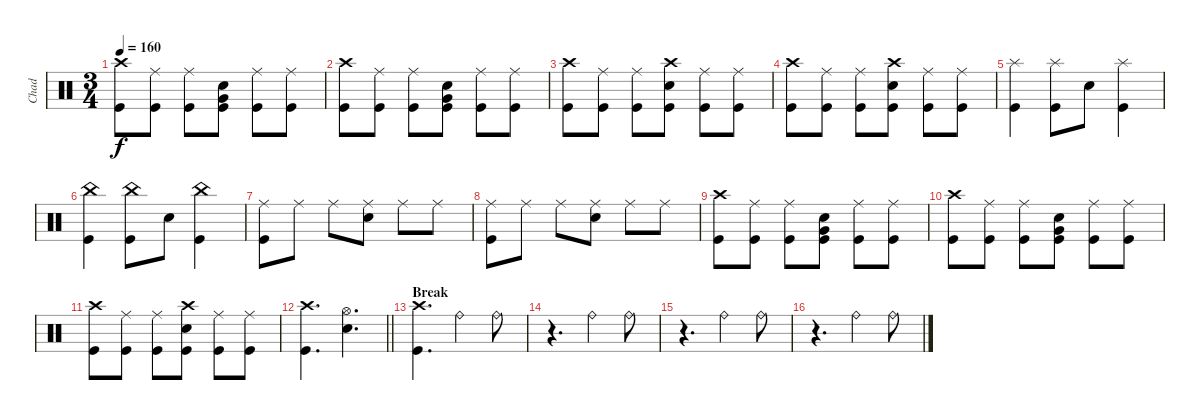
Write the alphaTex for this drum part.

\track ("Chad" "Chad") {instrument percussion}
\staff {score}
\articulation defaults
\ts (3 4)
\tempo 160
\clef neutral
\ks c
("Kick (hit)" "Crash high (hit)").8{dy f} ("Kick (hit)" "Ride (middle)").8 ("Kick (hit)" "Ride (middle)").8 ("Kick (hit)" "Snare (hit) 2" "Very Low Tom (hit)").8 ("Kick (hit)" "Ride (middle)").8 ("Kick (hit)" "Ride (middle)").8 |
("Kick (hit)" "Crash high (hit)").8 ("Kick (hit)" "Ride (middle)").8 ("Kick (hit)" "Ride (middle)").8 ("Kick (hit)" "Snare (hit) 2" "Very Low Tom (hit)").8 ("Kick (hit)" "Ride (middle)").8 ("Ride (middle)" "Kick (hit)").8 |
("Crash high (hit)" "Kick (hit)").8 ("Ride (middle)" "Kick (hit)").8 ("Ride (middle)" "Kick (hit)").8 ("Crash high (hit)" "Snare (hit) 2" "Kick (hit)").8 ("Ride (middle)" "Kick (hit)").8 ("Ride (middle)" "Kick (hit)").8 |
("Crash high (hit)" "Kick (hit)").8 ("Ride (middle)" "Kick (hit)").8 ("Ride (middle)" "Kick (hit)").8 ("Crash high (hit)" "Snare (hit) 2" "Kick (hit)").8 ("Ride (middle)" "Kick (hit)").8 ("Ride (middle)" "Kick (hit)").8 |
("Splash (hit)" "Kick (hit)").4 ("Splash (hit)" "Kick (hit)").8 "Snare (hit) 2".8 ("Splash (hit)" "Kick (hit)").4 |
("Kick (hit)" "China (hit)").4 ("China (hit)" "Kick (hit)").8 "Snare (hit) 2".8 ("China (hit)" "Kick (hit)").4 |
("Ride (middle)" "Kick (hit)").8 "Ride (middle)".8 "Ride (middle)".8 ("Ride (middle)" "Snare (hit) 2").8 "Ride (middle)".8 "Ride (middle)".8 |
("Ride (middle)" "Kick (hit)").8 "Ride (middle)".8 "Ride (middle)".8 ("Ride (middle)" "Snare (hit) 2").8 "Ride (middle)".8 "Ride (middle)".8 |
("Kick (hit)" "Crash high (hit)").8 ("Kick (hit)" "Ride (middle)").8 ("Kick (hit)" "Ride (middle)").8 ("Kick (hit)" "Snare (hit) 2" "Very Low Tom (hit)").8 ("Kick (hit)" "Ride (middle)").8 ("Kick (hit)" "Ride (middle)").8 |
("Kick (hit)" "Crash high (hit)").8 ("Kick (hit)" "Ride (middle)").8 ("Kick (hit)" "Ride (middle)").8 ("Kick (hit)" "Snare (hit) 2" "Very Low Tom (hit)").8 ("Kick (hit)" "Ride (middle)").8 ("Ride (middle)" "Kick (hit)").8 |
("Crash high (hit)" "Kick (hit)").8 ("Ride (middle)" "Kick (hit)").8 ("Ride (middle)" "Kick (hit)").8 ("Crash high (hit)" "Snare (hit) 2" "Kick (hit)").8 ("Ride (middle)" "Kick (hit)").8 ("Ride (middle)" "Kick (hit)").8 |
\barLineRight lightlight
("Kick (hit)" "Crash high (hit)").4{d} ("Snare (hit) 2" "Hi-Hat (open)").4{d} |
\section ("" "Break")
("Crash high (hit)" "Kick (hit)").4{d} "Ride (bell)".4 "Ride (bell)".8 |
r.4{d} "Ride (bell)".4 "Ride (bell)".8 |
r.4{d} "Ride (bell)".4 "Ride (bell)".8 |
r.4{d} "Ride (bell)".4 "Ride (bell)".8
